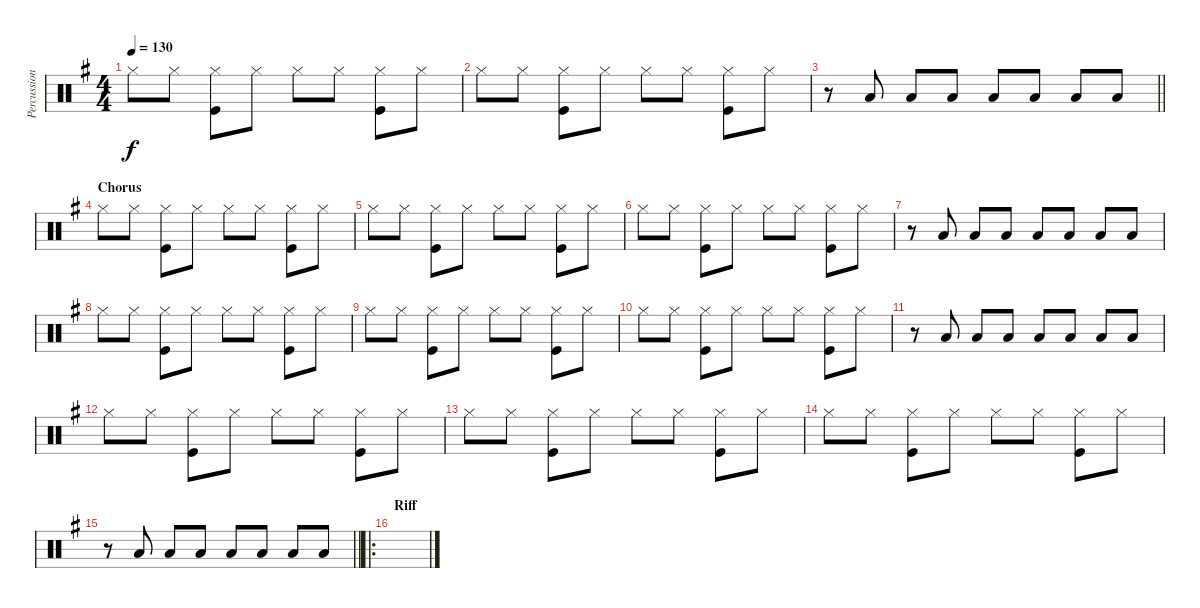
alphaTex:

\track ("Percussion" "Percussion") {instrument percussion}
\staff {score}
\articulation defaults
\ts (4 4)
\tempo 130
\clef neutral
\ks g "Hi-Hat (closed)".8{dy f} "Hi-Hat (closed)".8
("Hi-Hat (closed)" "Kick (hit)").8 "Hi-Hat (closed)".8 "Hi-Hat (closed)".8 "Hi-Hat (closed)".8 ("Hi-Hat (closed)" "Kick (hit)").8 "Hi-Hat (closed)".8 |
"Hi-Hat (closed)".8 "Hi-Hat (closed)".8 ("Hi-Hat (closed)" "Kick (hit)").8 "Hi-Hat (closed)".8 "Hi-Hat (closed)".8 "Hi-Hat (closed)".8 ("Hi-Hat (closed)" "Kick (hit)").8 "Hi-Hat (closed)".8 |
\barLineRight lightlight
r.8 "Low Tom (hit)".8 "Low Tom (hit)".8 "Low Tom (hit)".8 "Low Tom (hit)".8 "Low Tom (hit)".8 "Low Tom (hit)".8 "Low Tom (hit)".8 |
\section ("" "Chorus")
"Hi-Hat (closed)".8 "Hi-Hat (closed)".8 ("Hi-Hat (closed)" "Kick (hit)").8 "Hi-Hat (closed)".8 "Hi-Hat (closed)".8 "Hi-Hat (closed)".8 ("Hi-Hat (closed)" "Kick (hit)").8 "Hi-Hat (closed)".8 |
"Hi-Hat (closed)".8 "Hi-Hat (closed)".8 ("Hi-Hat (closed)" "Kick (hit)").8 "Hi-Hat (closed)".8 "Hi-Hat (closed)".8 "Hi-Hat (closed)".8 ("Hi-Hat (closed)" "Kick (hit)").8 "Hi-Hat (closed)".8 |
"Hi-Hat (closed)".8 "Hi-Hat (closed)".8 ("Hi-Hat (closed)" "Kick (hit)").8 "Hi-Hat (closed)".8 "Hi-Hat (closed)".8 "Hi-Hat (closed)".8 ("Hi-Hat (closed)" "Kick (hit)").8 "Hi-Hat (closed)".8 |
r.8 "Low Tom (hit)".8 "Low Tom (hit)".8 "Low Tom (hit)".8 "Low Tom (hit)".8 "Low Tom (hit)".8 "Low Tom (hit)".8 "Low Tom (hit)".8 |
"Hi-Hat (closed)".8 "Hi-Hat (closed)".8 ("Hi-Hat (closed)" "Kick (hit)").8 "Hi-Hat (closed)".8 "Hi-Hat (closed)".8 "Hi-Hat (closed)".8 ("Hi-Hat (closed)" "Kick (hit)").8 "Hi-Hat (closed)".8 |
"Hi-Hat (closed)".8 "Hi-Hat (closed)".8 ("Hi-Hat (closed)" "Kick (hit)").8 "Hi-Hat (closed)".8 "Hi-Hat (closed)".8 "Hi-Hat (closed)".8 ("Hi-Hat (closed)" "Kick (hit)").8 "Hi-Hat (closed)".8 |
"Hi-Hat (closed)".8 "Hi-Hat (closed)".8 ("Hi-Hat (closed)" "Kick (hit)").8 "Hi-Hat (closed)".8 "Hi-Hat (closed)".8 "Hi-Hat (closed)".8 ("Hi-Hat (closed)" "Kick (hit)").8 "Hi-Hat (closed)".8 |
r.8 "Low Tom (hit)".8 "Low Tom (hit)".8 "Low Tom (hit)".8 "Low Tom (hit)".8 "Low Tom (hit)".8 "Low Tom (hit)".8 "Low Tom (hit)".8 |
"Hi-Hat (closed)".8 "Hi-Hat (closed)".8 ("Hi-Hat (closed)" "Kick (hit)").8 "Hi-Hat (closed)".8 "Hi-Hat (closed)".8 "Hi-Hat (closed)".8 ("Hi-Hat (closed)" "Kick (hit)").8 "Hi-Hat (closed)".8 |
"Hi-Hat (closed)".8 "Hi-Hat (closed)".8 ("Hi-Hat (closed)" "Kick (hit)").8 "Hi-Hat (closed)".8 "Hi-Hat (closed)".8 "Hi-Hat (closed)".8 ("Hi-Hat (closed)" "Kick (hit)").8 "Hi-Hat (closed)".8 |
"Hi-Hat (closed)".8 "Hi-Hat (closed)".8 ("Hi-Hat (closed)" "Kick (hit)").8 "Hi-Hat (closed)".8 "Hi-Hat (closed)".8 "Hi-Hat (closed)".8 ("Hi-Hat (closed)" "Kick (hit)").8 "Hi-Hat (closed)".8 |
\barLineRight lightlight
r.8 "Low Tom (hit)".8 "Low Tom (hit)".8 "Low Tom (hit)".8 "Low Tom (hit)".8 "Low Tom (hit)".8 "Low Tom (hit)".8 "Low Tom (hit)".8 |
\ro
\section ("" "Riff")
